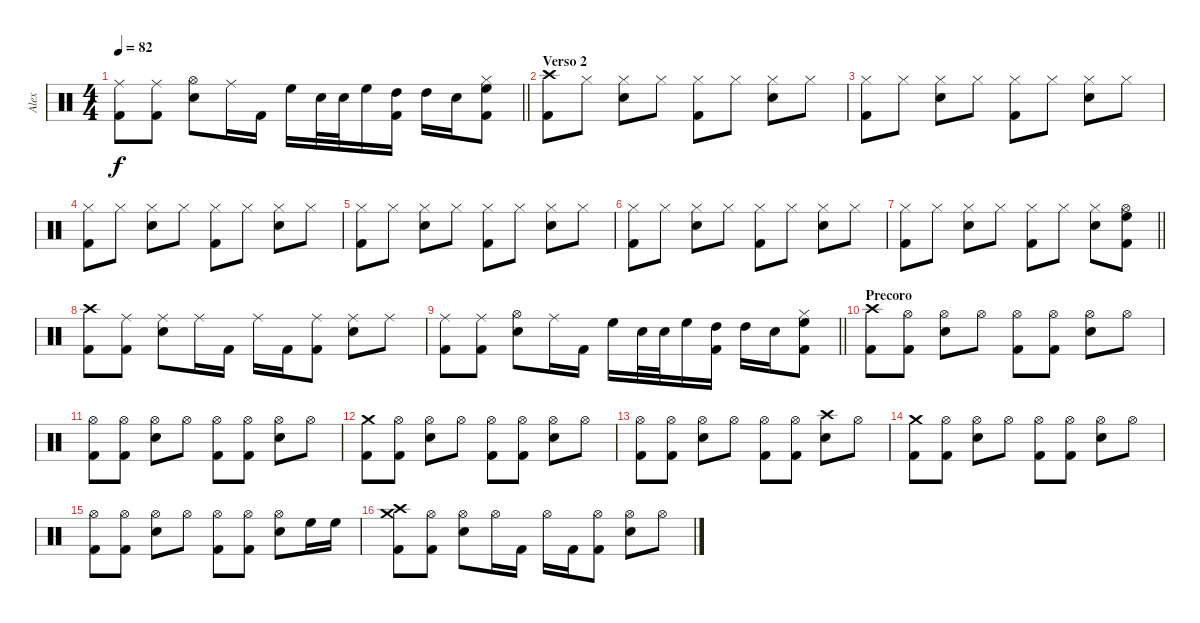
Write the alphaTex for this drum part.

\track ("Alex" "Alex") {instrument percussion}
\staff {score}
\articulation defaults
\ts (4 4)
\tempo 82
\clef neutral
\barLineRight lightlight
\ks c
("Ride (middle)" "Kick (hit) 2").8{dy f} ("Ride (middle)" "Kick (hit) 2").8 ("Hi-Hat (open)" "Electric Snare (hit)").8 "Ride (middle)".16 "Kick (hit) 2".16 "High Floor Tom (hit)".16 "Electric Snare (hit)".32 "Electric Snare (hit)".32 "High Floor Tom (hit)".16 ("Kick (hit) 2" "High Tom (hit)").16 "High Tom (hit)".16 "Electric Snare (hit)".16 ("Kick (hit) 2" "High Floor Tom (hit)" "Hi-Hat (closed)").8 |
\section ("" "Verso 2")
("Crash high (hit)" "Kick (hit) 2").8 "Hi-Hat (closed)".8 ("Hi-Hat (closed)" "Electric Snare (hit)").8 "Hi-Hat (closed)".8 ("Hi-Hat (closed)" "Kick (hit) 2").8 "Hi-Hat (closed)".8 ("Hi-Hat (closed)" "Electric Snare (hit)").8 "Hi-Hat (closed)".8 |
("Hi-Hat (closed)" "Kick (hit) 2").8 "Hi-Hat (closed)".8 ("Hi-Hat (closed)" "Electric Snare (hit)").8 "Hi-Hat (closed)".8 ("Hi-Hat (closed)" "Kick (hit) 2").8 "Hi-Hat (closed)".8 ("Hi-Hat (closed)" "Electric Snare (hit)").8 "Hi-Hat (closed)".8 |
("Hi-Hat (closed)" "Kick (hit) 2").8 "Hi-Hat (closed)".8 ("Hi-Hat (closed)" "Electric Snare (hit)").8 "Hi-Hat (closed)".8 ("Hi-Hat (closed)" "Kick (hit) 2").8 "Hi-Hat (closed)".8 ("Hi-Hat (closed)" "Electric Snare (hit)").8 "Hi-Hat (closed)".8 |
("Hi-Hat (closed)" "Kick (hit) 2").8 "Hi-Hat (closed)".8 ("Hi-Hat (closed)" "Electric Snare (hit)").8 "Hi-Hat (closed)".8 ("Hi-Hat (closed)" "Kick (hit) 2").8 "Hi-Hat (closed)".8 ("Hi-Hat (closed)" "Electric Snare (hit)").8 "Hi-Hat (closed)".8 |
("Hi-Hat (closed)" "Kick (hit) 2").8 "Hi-Hat (closed)".8 ("Hi-Hat (closed)" "Electric Snare (hit)").8 "Hi-Hat (closed)".8 ("Hi-Hat (closed)" "Kick (hit) 2").8 "Hi-Hat (closed)".8 ("Hi-Hat (closed)" "Electric Snare (hit)").8 "Hi-Hat (closed)".8 |
\barLineRight lightlight
("Hi-Hat (closed)" "Kick (hit) 2").8 "Hi-Hat (closed)".8 ("Hi-Hat (closed)" "Electric Snare (hit)").8 "Hi-Hat (closed)".8 ("Hi-Hat (closed)" "Kick (hit) 2").8 "Hi-Hat (closed)".8 ("Hi-Hat (closed)" "Electric Snare (hit)").8 ("High Floor Tom (hit)" "Hi-Hat (open)" "Kick (hit) 2").8 |
("Crash high (hit)" "Kick (hit) 2").8 ("Ride (middle)" "Kick (hit) 2").8 ("Ride (middle)" "Electric Snare (hit)").8 "Ride (middle)".16 "Kick (hit) 2".16 "Ride (middle)".16 "Kick (hit) 2".16 ("Ride (middle)" "Kick (hit) 2").8 ("Ride (middle)" "Electric Snare (hit)").8 "Ride (middle)".8 |
\barLineRight lightlight
("Ride (middle)" "Kick (hit) 2").8 ("Ride (middle)" "Kick (hit) 2").8 ("Hi-Hat (open)" "Electric Snare (hit)").8 "Ride (middle)".16 "Kick (hit) 2".16 "High Floor Tom (hit)".16 "Electric Snare (hit)".32 "Electric Snare (hit)".32 "High Floor Tom (hit)".16 ("Kick (hit) 2" "High Tom (hit)").16 "High Tom (hit)".16 "Electric Snare (hit)".16 ("Kick (hit) 2" "High Floor Tom (hit)" "Hi-Hat (closed)").8 |
\section ("" "Precoro")
("Crash high (hit)" "Kick (hit) 2").8 ("Hi-Hat (open)" "Kick (hit) 2").8 ("Hi-Hat (open)" "Electric Snare (hit)").8 "Hi-Hat (open)".8 ("Hi-Hat (open)" "Kick (hit) 2").8 ("Hi-Hat (open)" "Kick (hit) 2").8 ("Hi-Hat (open)" "Electric Snare (hit)").8 "Hi-Hat (open)".8 |
("Hi-Hat (open)" "Kick (hit) 2").8 ("Hi-Hat (open)" "Kick (hit) 2").8 ("Hi-Hat (open)" "Electric Snare (hit)").8 "Hi-Hat (open)".8 ("Hi-Hat (open)" "Kick (hit) 2").8 ("Hi-Hat (open)" "Kick (hit) 2").8 ("Hi-Hat (open)" "Electric Snare (hit)").8 "Hi-Hat (open)".8 |
("Crash medium (hit)" "Kick (hit) 2").8 ("Hi-Hat (open)" "Kick (hit) 2").8 ("Hi-Hat (open)" "Electric Snare (hit)").8 "Hi-Hat (open)".8 ("Hi-Hat (open)" "Kick (hit) 2").8 ("Hi-Hat (open)" "Kick (hit) 2").8 ("Hi-Hat (open)" "Electric Snare (hit)").8 "Hi-Hat (open)".8 |
("Hi-Hat (open)" "Kick (hit) 2").8 ("Hi-Hat (open)" "Kick (hit) 2").8 ("Hi-Hat (open)" "Electric Snare (hit)").8 "Hi-Hat (open)".8 ("Hi-Hat (open)" "Kick (hit) 2").8 ("Hi-Hat (open)" "Kick (hit) 2").8 ("Crash high (hit)" "Electric Snare (hit)").8 "Hi-Hat (open)".8 |
("Crash medium (hit)" "Kick (hit) 2").8 ("Hi-Hat (open)" "Kick (hit) 2").8 ("Hi-Hat (open)" "Electric Snare (hit)").8 "Hi-Hat (open)".8 ("Hi-Hat (open)" "Kick (hit) 2").8 ("Hi-Hat (open)" "Kick (hit) 2").8 ("Hi-Hat (open)" "Electric Snare (hit)").8 "Hi-Hat (open)".8 |
("Hi-Hat (open)" "Kick (hit) 2").8 ("Hi-Hat (open)" "Kick (hit) 2").8 ("Hi-Hat (open)" "Electric Snare (hit)").8 "Hi-Hat (open)".8 ("Hi-Hat (open)" "Kick (hit) 2").8 ("Hi-Hat (open)" "Kick (hit) 2").8 ("Hi-Hat (open)" "Electric Snare (hit)").8 "High Floor Tom (hit)".16 "High Floor Tom (hit)".16 |
("Crash medium (hit)" "Crash high (hit)" "Kick (hit) 2").8 ("Hi-Hat (open)" "Kick (hit) 2").8 ("Hi-Hat (open)" "Electric Snare (hit)").8 "Hi-Hat (open)".16 "Kick (hit) 2".16 "Hi-Hat (open)".16 "Kick (hit) 2".16 ("Hi-Hat (open)" "Kick (hit) 2").8 ("Hi-Hat (open)" "Electric Snare (hit)").8 "Hi-Hat (open)".8
